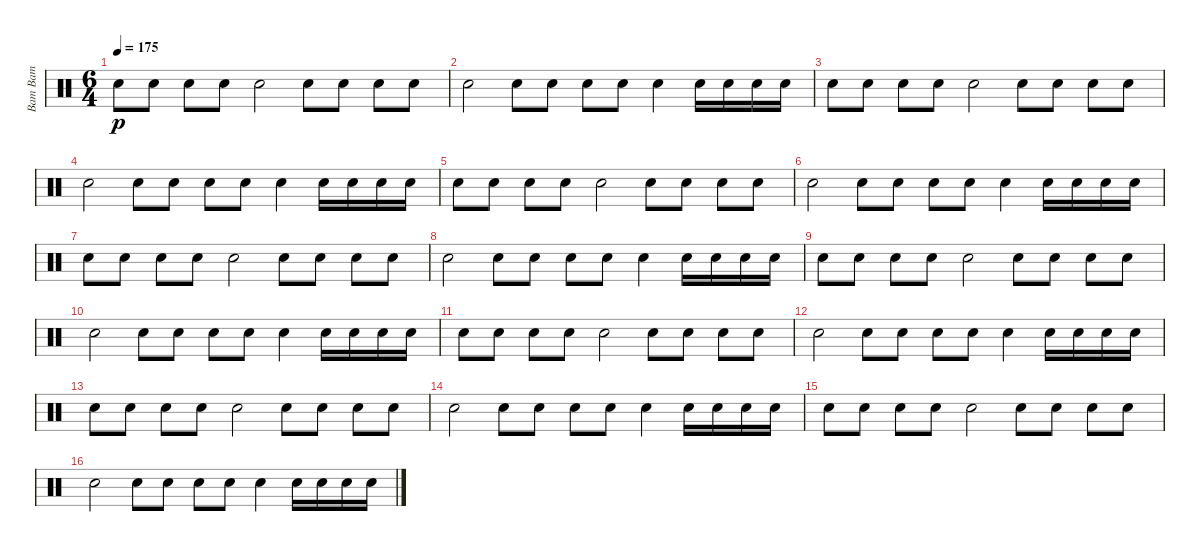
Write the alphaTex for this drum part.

\track ("Bam Bam" "Bam Bam") {instrument percussion}
\staff {score}
\articulation defaults
\ts (6 4)
\tempo 175
\clef neutral
\ks c "Electric Snare (hit)".8{dy p} "Electric Snare (hit)".8 "Electric Snare (hit)".8 "Electric Snare (hit)".8 "Electric Snare (hit)".2 "Electric Snare (hit)".8 "Electric Snare (hit)".8 "Electric Snare (hit)".8 "Electric Snare (hit)".8
|
"Electric Snare (hit)".2 "Electric Snare (hit)".8 "Electric Snare (hit)".8 "Electric Snare (hit)".8 "Electric Snare (hit)".8 "Electric Snare (hit)".4 "Electric Snare (hit)".16 "Electric Snare (hit)".16 "Electric Snare (hit)".16 "Electric Snare (hit)".16 |
"Electric Snare (hit)".8 "Electric Snare (hit)".8 "Electric Snare (hit)".8 "Electric Snare (hit)".8 "Electric Snare (hit)".2 "Electric Snare (hit)".8 "Electric Snare (hit)".8 "Electric Snare (hit)".8 "Electric Snare (hit)".8 |
"Electric Snare (hit)".2 "Electric Snare (hit)".8 "Electric Snare (hit)".8 "Electric Snare (hit)".8 "Electric Snare (hit)".8 "Electric Snare (hit)".4 "Electric Snare (hit)".16 "Electric Snare (hit)".16 "Electric Snare (hit)".16 "Electric Snare (hit)".16 |
"Electric Snare (hit)".8 "Electric Snare (hit)".8 "Electric Snare (hit)".8 "Electric Snare (hit)".8 "Electric Snare (hit)".2 "Electric Snare (hit)".8 "Electric Snare (hit)".8 "Electric Snare (hit)".8 "Electric Snare (hit)".8 |
"Electric Snare (hit)".2 "Electric Snare (hit)".8 "Electric Snare (hit)".8 "Electric Snare (hit)".8 "Electric Snare (hit)".8 "Electric Snare (hit)".4 "Electric Snare (hit)".16 "Electric Snare (hit)".16 "Electric Snare (hit)".16 "Electric Snare (hit)".16 |
"Electric Snare (hit)".8 "Electric Snare (hit)".8 "Electric Snare (hit)".8 "Electric Snare (hit)".8 "Electric Snare (hit)".2 "Electric Snare (hit)".8 "Electric Snare (hit)".8 "Electric Snare (hit)".8 "Electric Snare (hit)".8 |
"Electric Snare (hit)".2 "Electric Snare (hit)".8 "Electric Snare (hit)".8 "Electric Snare (hit)".8 "Electric Snare (hit)".8 "Electric Snare (hit)".4 "Electric Snare (hit)".16 "Electric Snare (hit)".16 "Electric Snare (hit)".16 "Electric Snare (hit)".16 |
"Electric Snare (hit)".8 "Electric Snare (hit)".8 "Electric Snare (hit)".8 "Electric Snare (hit)".8 "Electric Snare (hit)".2 "Electric Snare (hit)".8 "Electric Snare (hit)".8 "Electric Snare (hit)".8 "Electric Snare (hit)".8 |
"Electric Snare (hit)".2 "Electric Snare (hit)".8 "Electric Snare (hit)".8 "Electric Snare (hit)".8 "Electric Snare (hit)".8 "Electric Snare (hit)".4 "Electric Snare (hit)".16 "Electric Snare (hit)".16 "Electric Snare (hit)".16 "Electric Snare (hit)".16 |
"Electric Snare (hit)".8 "Electric Snare (hit)".8 "Electric Snare (hit)".8 "Electric Snare (hit)".8 "Electric Snare (hit)".2 "Electric Snare (hit)".8 "Electric Snare (hit)".8 "Electric Snare (hit)".8 "Electric Snare (hit)".8 |
"Electric Snare (hit)".2 "Electric Snare (hit)".8 "Electric Snare (hit)".8 "Electric Snare (hit)".8 "Electric Snare (hit)".8 "Electric Snare (hit)".4 "Electric Snare (hit)".16 "Electric Snare (hit)".16 "Electric Snare (hit)".16 "Electric Snare (hit)".16 |
"Electric Snare (hit)".8 "Electric Snare (hit)".8 "Electric Snare (hit)".8 "Electric Snare (hit)".8 "Electric Snare (hit)".2 "Electric Snare (hit)".8 "Electric Snare (hit)".8 "Electric Snare (hit)".8 "Electric Snare (hit)".8 |
"Electric Snare (hit)".2 "Electric Snare (hit)".8 "Electric Snare (hit)".8 "Electric Snare (hit)".8 "Electric Snare (hit)".8 "Electric Snare (hit)".4 "Electric Snare (hit)".16 "Electric Snare (hit)".16 "Electric Snare (hit)".16 "Electric Snare (hit)".16 |
"Electric Snare (hit)".8 "Electric Snare (hit)".8 "Electric Snare (hit)".8 "Electric Snare (hit)".8 "Electric Snare (hit)".2 "Electric Snare (hit)".8 "Electric Snare (hit)".8 "Electric Snare (hit)".8 "Electric Snare (hit)".8 |
"Electric Snare (hit)".2 "Electric Snare (hit)".8 "Electric Snare (hit)".8 "Electric Snare (hit)".8 "Electric Snare (hit)".8 "Electric Snare (hit)".4 "Electric Snare (hit)".16 "Electric Snare (hit)".16 "Electric Snare (hit)".16 "Electric Snare (hit)".16
